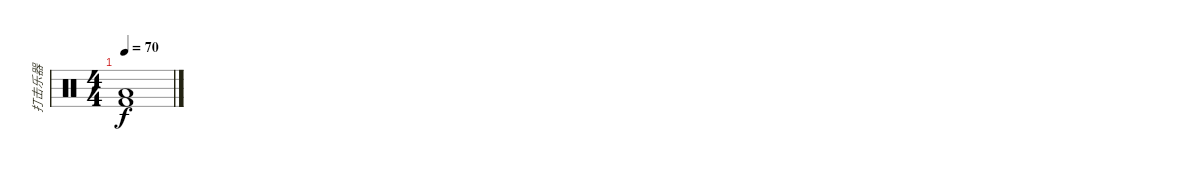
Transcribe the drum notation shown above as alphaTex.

\track ("打击乐器" "打击乐器") {instrument percussion bank 5}
\staff {score}
\articulation defaults
\ts (4 4)
\tempo 70
\clef neutral
\ks c
("Low Floor Tom (hit)" "Kick (hit) 2").1{dy f}
